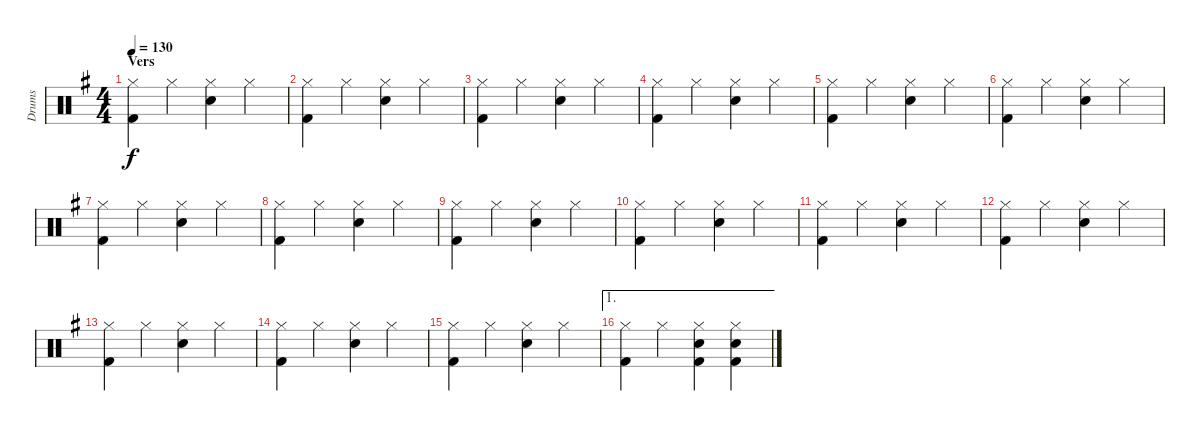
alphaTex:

\track ("Drums" "Drums") {instrument percussion}
\staff {score}
\articulation defaults
\ts (4 4)
\section ("" "Vers")
\tempo 130
\clef neutral
\ks g
("Hi-Hat (closed)" "Kick (hit) 2").4{dy f} "Hi-Hat (closed)".4 ("Hi-Hat (closed)" "Snare (hit) 2").4 "Hi-Hat (closed)".4 |
("Hi-Hat (closed)" "Kick (hit) 2").4 "Hi-Hat (closed)".4 ("Hi-Hat (closed)" "Snare (hit) 2").4 "Hi-Hat (closed)".4 |
("Hi-Hat (closed)" "Kick (hit) 2").4 "Hi-Hat (closed)".4 ("Hi-Hat (closed)" "Snare (hit) 2").4 "Hi-Hat (closed)".4 |
("Hi-Hat (closed)" "Kick (hit) 2").4 "Hi-Hat (closed)".4 ("Hi-Hat (closed)" "Snare (hit) 2").4 "Hi-Hat (closed)".4 |
("Hi-Hat (closed)" "Kick (hit) 2").4 "Hi-Hat (closed)".4 ("Hi-Hat (closed)" "Snare (hit) 2").4 "Hi-Hat (closed)".4 |
("Hi-Hat (closed)" "Kick (hit) 2").4 "Hi-Hat (closed)".4 ("Hi-Hat (closed)" "Snare (hit) 2").4 "Hi-Hat (closed)".4 |
("Hi-Hat (closed)" "Kick (hit) 2").4 "Hi-Hat (closed)".4 ("Hi-Hat (closed)" "Snare (hit) 2").4 "Hi-Hat (closed)".4 |
("Hi-Hat (closed)" "Kick (hit) 2").4 "Hi-Hat (closed)".4 ("Hi-Hat (closed)" "Snare (hit) 2").4 "Hi-Hat (closed)".4 |
("Hi-Hat (closed)" "Kick (hit) 2").4 "Hi-Hat (closed)".4 ("Hi-Hat (closed)" "Snare (hit) 2").4 "Hi-Hat (closed)".4 |
("Hi-Hat (closed)" "Kick (hit) 2").4 "Hi-Hat (closed)".4 ("Hi-Hat (closed)" "Snare (hit) 2").4 "Hi-Hat (closed)".4 |
("Hi-Hat (closed)" "Kick (hit) 2").4 "Hi-Hat (closed)".4 ("Hi-Hat (closed)" "Snare (hit) 2").4 "Hi-Hat (closed)".4 |
("Hi-Hat (closed)" "Kick (hit) 2").4 "Hi-Hat (closed)".4 ("Hi-Hat (closed)" "Snare (hit) 2").4 "Hi-Hat (closed)".4 |
("Hi-Hat (closed)" "Kick (hit) 2").4 "Hi-Hat (closed)".4 ("Hi-Hat (closed)" "Snare (hit) 2").4 "Hi-Hat (closed)".4 |
("Hi-Hat (closed)" "Kick (hit) 2").4 "Hi-Hat (closed)".4 ("Hi-Hat (closed)" "Snare (hit) 2").4 "Hi-Hat (closed)".4 |
("Hi-Hat (closed)" "Kick (hit) 2").4 "Hi-Hat (closed)".4 ("Hi-Hat (closed)" "Snare (hit) 2").4 "Hi-Hat (closed)".4 |
\ae 1
("Hi-Hat (closed)" "Kick (hit) 2").4 "Hi-Hat (closed)".4 ("Hi-Hat (closed)" "Snare (hit) 2" "Kick (hit) 2").4 ("Hi-Hat (closed)" "Snare (hit) 2" "Kick (hit) 2").4
